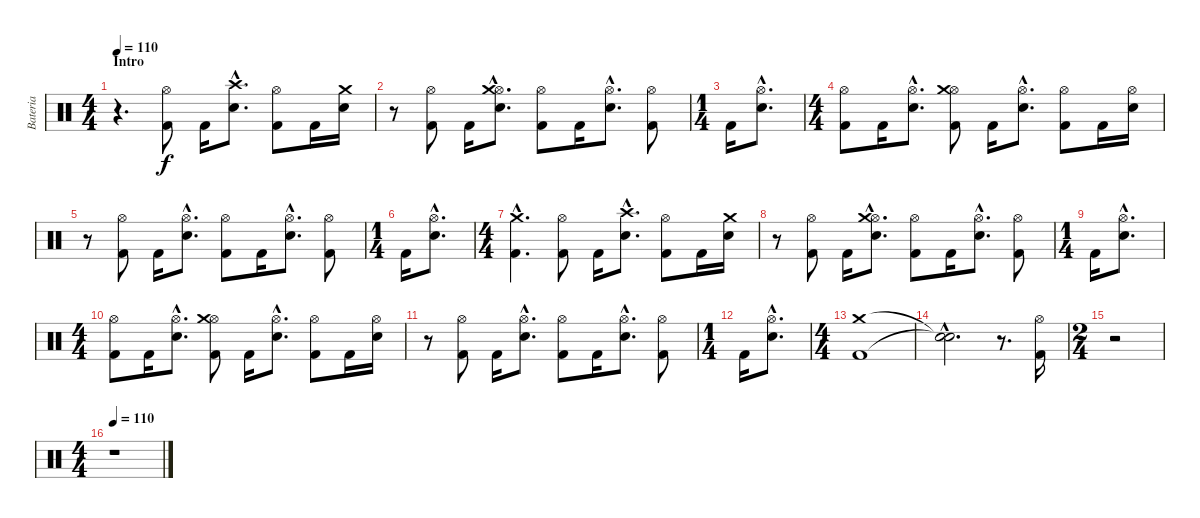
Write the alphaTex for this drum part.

\track ("Bateria" "Bateria") {instrument percussion}
\staff {score}
\articulation defaults
\ts (4 4)
\section ("" "Intro")
\tempo 110
\clef neutral
\ks c
r.4{d dy f} ("Hi-Hat (open)" "Kick (hit) 2").8 "Kick (hit) 2".16 ("Crash high (hit)"{hac} "Snare (hit) 2"{hac}).8{d} ("Hi-Hat (open)" "Kick (hit) 2").8 "Kick (hit) 2".16 ("Snare (hit) 2" "Crash medium (hit)").16 |
r.8 ("Hi-Hat (open)" "Kick (hit) 2").8 "Kick (hit) 2".16 ("Snare (hit) 2"{hac} "Hi-Hat (open)"{hac} "Crash medium (hit)"{hac}).8{d} ("Hi-Hat (open)" "Kick (hit) 2").8 "Kick (hit) 2".16 ("Snare (hit) 2"{hac} "Hi-Hat (open)"{hac}).8{d} ("Hi-Hat (open)" "Kick (hit) 2").8 |
\ts (1 4)
"Kick (hit) 2".16 ("Snare (hit) 2"{hac} "Hi-Hat (open)"{hac}).8{d} |
\ts (4 4)
("Hi-Hat (open)" "Kick (hit) 2").8 "Kick (hit) 2".16 ("Hi-Hat (open)"{hac} "Snare (hit) 2"{hac}).8{d} ("Hi-Hat (open)" "Kick (hit) 2" "Crash medium (hit)").8 "Kick (hit) 2".16 ("Hi-Hat (open)"{hac} "Snare (hit) 2"{hac}).8{d} ("Hi-Hat (open)" "Kick (hit) 2").8 "Kick (hit) 2".16 ("Hi-Hat (open)" "Snare (hit) 2").16 |
r.8 ("Hi-Hat (open)" "Kick (hit) 2").8 "Kick (hit) 2".16 ("Snare (hit) 2"{hac} "Hi-Hat (open)"{hac}).8{d} ("Hi-Hat (open)" "Kick (hit) 2").8 "Kick (hit) 2".16 ("Snare (hit) 2"{hac} "Hi-Hat (open)"{hac}).8{d} ("Hi-Hat (open)" "Kick (hit) 2").8 |
\ts (1 4)
"Kick (hit) 2".16 ("Snare (hit) 2"{hac} "Hi-Hat (open)"{hac}).8{d} |
\ts (4 4)
("Crash medium (hit)"{hac} "Kick (hit) 2"{hac}).4{d} ("Hi-Hat (open)" "Kick (hit) 2").8 "Kick (hit) 2".16 ("Crash high (hit)"{hac} "Snare (hit) 2"{hac}).8{d} ("Hi-Hat (open)" "Kick (hit) 2").8 "Kick (hit) 2".16 ("Snare (hit) 2" "Crash medium (hit)").16 |
r.8 ("Hi-Hat (open)" "Kick (hit) 2").8 "Kick (hit) 2".16 ("Snare (hit) 2"{hac} "Hi-Hat (open)"{hac} "Crash medium (hit)"{hac}).8{d} ("Hi-Hat (open)" "Kick (hit) 2").8 "Kick (hit) 2".16 ("Snare (hit) 2"{hac} "Hi-Hat (open)"{hac}).8{d} ("Hi-Hat (open)" "Kick (hit) 2").8 |
\ts (1 4)
"Kick (hit) 2".16 ("Snare (hit) 2"{hac} "Hi-Hat (open)"{hac}).8{d} |
\ts (4 4)
("Hi-Hat (open)" "Kick (hit) 2").8 "Kick (hit) 2".16 ("Hi-Hat (open)"{hac} "Snare (hit) 2"{hac}).8{d} ("Hi-Hat (open)" "Kick (hit) 2" "Crash medium (hit)").8 "Kick (hit) 2".16 ("Hi-Hat (open)"{hac} "Snare (hit) 2"{hac}).8{d} ("Hi-Hat (open)" "Kick (hit) 2").8 "Kick (hit) 2".16 ("Hi-Hat (open)" "Snare (hit) 2").16 |
r.8 ("Hi-Hat (open)" "Kick (hit) 2").8 "Kick (hit) 2".16 ("Snare (hit) 2"{hac} "Hi-Hat (open)"{hac}).8{d} ("Hi-Hat (open)" "Kick (hit) 2").8 "Kick (hit) 2".16 ("Snare (hit) 2"{hac} "Hi-Hat (open)"{hac}).8{d} ("Hi-Hat (open)" "Kick (hit) 2").8 |
\ts (1 4)
"Kick (hit) 2".16 ("Snare (hit) 2"{hac} "Hi-Hat (open)"{hac}).8{d} |
\ts (4 4)
("Crash medium (hit)" "Kick (hit) 2").1 |
("Snare (hit)"{hac t} "Snare (hit)"{hac t}).2{d} r.8{d} ("Hi-Hat (open)" "Kick (hit) 2").16 |
\ts (2 4)
r.2 |
\ts (4 4)
\tempo 110
r.1
